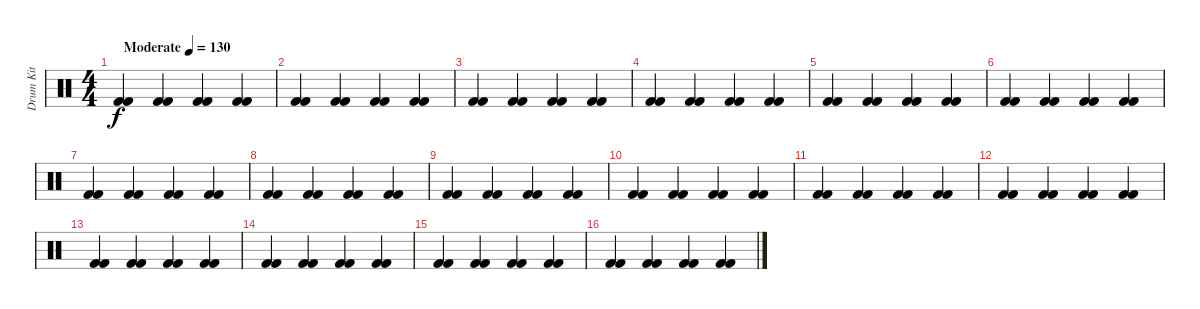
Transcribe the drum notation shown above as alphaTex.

\track ("Drum Kit" "Drum Kit") {instrument percussion}
\staff {score}
\articulation defaults
\ts (4 4)
\tempo (130 "Moderate")
\clef neutral
\ks c
("Kick (hit) 2" "Kick (hit) 2").4{dy f} ("Kick (hit) 2" "Kick (hit) 2").4 ("Kick (hit) 2" "Kick (hit) 2").4 ("Kick (hit) 2" "Kick (hit) 2").4 |
("Kick (hit) 2" "Kick (hit) 2").4 ("Kick (hit) 2" "Kick (hit) 2").4 ("Kick (hit) 2" "Kick (hit) 2").4 ("Kick (hit) 2" "Kick (hit) 2").4 |
("Kick (hit) 2" "Kick (hit) 2").4 ("Kick (hit) 2" "Kick (hit) 2").4 ("Kick (hit) 2" "Kick (hit) 2").4 ("Kick (hit) 2" "Kick (hit) 2").4 |
("Kick (hit) 2" "Kick (hit) 2").4 ("Kick (hit) 2" "Kick (hit) 2").4 ("Kick (hit) 2" "Kick (hit) 2").4 ("Kick (hit) 2" "Kick (hit) 2").4 |
("Kick (hit) 2" "Kick (hit) 2").4 ("Kick (hit) 2" "Kick (hit) 2").4 ("Kick (hit) 2" "Kick (hit) 2").4 ("Kick (hit) 2" "Kick (hit) 2").4 |
("Kick (hit) 2" "Kick (hit) 2").4 ("Kick (hit) 2" "Kick (hit) 2").4 ("Kick (hit) 2" "Kick (hit) 2").4 ("Kick (hit) 2" "Kick (hit) 2").4 |
("Kick (hit) 2" "Kick (hit) 2").4 ("Kick (hit) 2" "Kick (hit) 2").4 ("Kick (hit) 2" "Kick (hit) 2").4 ("Kick (hit) 2" "Kick (hit) 2").4 |
("Kick (hit) 2" "Kick (hit) 2").4 ("Kick (hit) 2" "Kick (hit) 2").4 ("Kick (hit) 2" "Kick (hit) 2").4 ("Kick (hit) 2" "Kick (hit) 2").4 |
("Kick (hit) 2" "Kick (hit) 2").4 ("Kick (hit) 2" "Kick (hit) 2").4 ("Kick (hit) 2" "Kick (hit) 2").4 ("Kick (hit) 2" "Kick (hit) 2").4 |
("Kick (hit) 2" "Kick (hit) 2").4 ("Kick (hit) 2" "Kick (hit) 2").4 ("Kick (hit) 2" "Kick (hit) 2").4 ("Kick (hit) 2" "Kick (hit) 2").4 |
("Kick (hit) 2" "Kick (hit) 2").4 ("Kick (hit) 2" "Kick (hit) 2").4 ("Kick (hit) 2" "Kick (hit) 2").4 ("Kick (hit) 2" "Kick (hit) 2").4 |
("Kick (hit) 2" "Kick (hit) 2").4 ("Kick (hit) 2" "Kick (hit) 2").4 ("Kick (hit) 2" "Kick (hit) 2").4 ("Kick (hit) 2" "Kick (hit) 2").4 |
("Kick (hit) 2" "Kick (hit) 2").4 ("Kick (hit) 2" "Kick (hit) 2").4 ("Kick (hit) 2" "Kick (hit) 2").4 ("Kick (hit) 2" "Kick (hit) 2").4 |
("Kick (hit) 2" "Kick (hit) 2").4 ("Kick (hit) 2" "Kick (hit) 2").4 ("Kick (hit) 2" "Kick (hit) 2").4 ("Kick (hit) 2" "Kick (hit) 2").4 |
("Kick (hit) 2" "Kick (hit) 2").4 ("Kick (hit) 2" "Kick (hit) 2").4 ("Kick (hit) 2" "Kick (hit) 2").4 ("Kick (hit) 2" "Kick (hit) 2").4 |
("Kick (hit) 2" "Kick (hit) 2").4 ("Kick (hit) 2" "Kick (hit) 2").4 ("Kick (hit) 2" "Kick (hit) 2").4 ("Kick (hit) 2" "Kick (hit) 2").4
